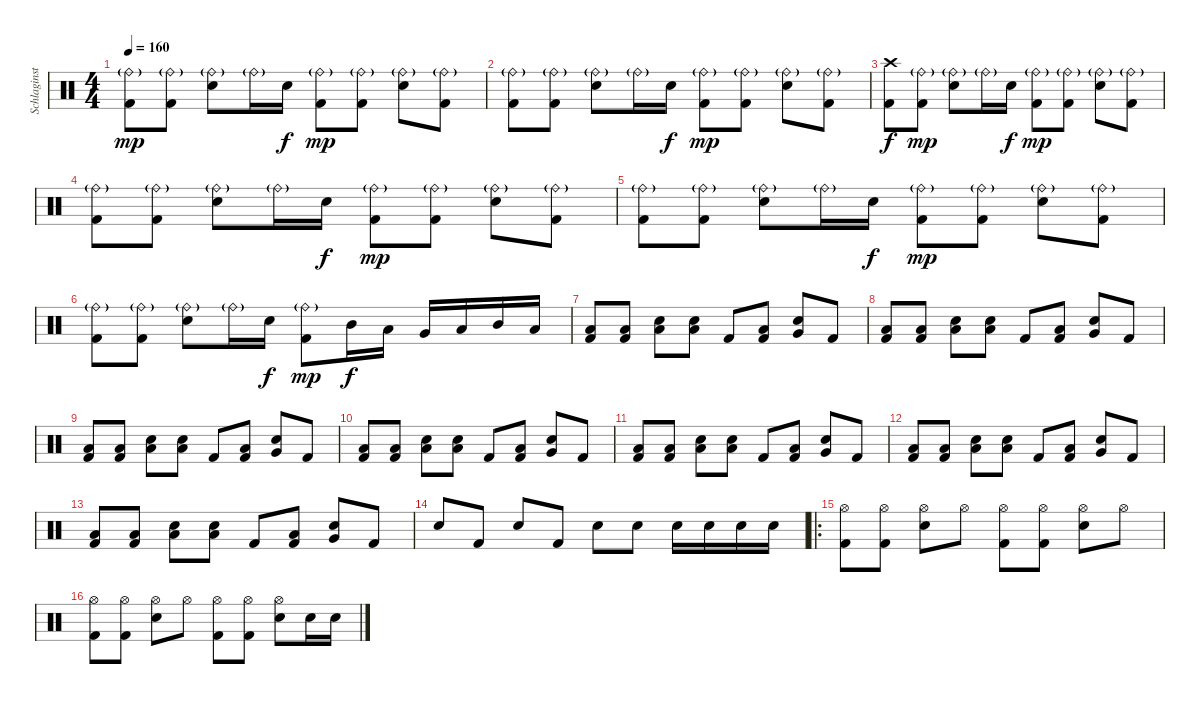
\track ("Schlaginstrumente - Auswahl" "Schlaginst") {instrument percussion}
\staff {score}
\articulation defaults
\ts (4 4)
\tempo 160
\clef neutral
\ks c
("Ride (bell)"{g} "Kick (hit) 2").8{dy mp} ("Ride (bell)"{g} "Kick (hit) 2").8 ("Ride (bell)"{g} "Electric Snare (hit)").8 "Ride (bell)"{g}.16 "Electric Snare (hit)".16{dy f} ("Ride (bell)"{g} "Kick (hit) 2").8{dy mp} ("Ride (bell)"{g} "Kick (hit) 2").8 ("Ride (bell)"{g} "Electric Snare (hit)").8 ("Ride (bell)"{g} "Kick (hit) 2").8 |
("Ride (bell)"{g} "Kick (hit) 2").8 ("Ride (bell)"{g} "Kick (hit) 2").8 ("Ride (bell)"{g} "Electric Snare (hit)").8 "Ride (bell)"{g}.16 "Electric Snare (hit)".16{dy f} ("Ride (bell)"{g} "Kick (hit) 2").8{dy mp} ("Ride (bell)"{g} "Kick (hit) 2").8 ("Ride (bell)"{g} "Electric Snare (hit)").8 ("Ride (bell)"{g} "Kick (hit) 2").8 |
("Crash high (hit)" "Kick (hit) 2").8{dy f} ("Ride (bell)"{g} "Kick (hit) 2").8{dy mp} ("Ride (bell)"{g} "Electric Snare (hit)").8 "Ride (bell)"{g}.16 "Electric Snare (hit)".16{dy f} ("Ride (bell)"{g} "Kick (hit) 2").8{dy mp} ("Ride (bell)"{g} "Kick (hit) 2").8 ("Ride (bell)"{g} "Electric Snare (hit)").8 ("Ride (bell)"{g} "Kick (hit) 2").8 |
("Ride (bell)"{g} "Kick (hit) 2").8 ("Ride (bell)"{g} "Kick (hit) 2").8 ("Ride (bell)"{g} "Electric Snare (hit)").8 "Ride (bell)"{g}.16 "Electric Snare (hit)".16{dy f} ("Ride (bell)"{g} "Kick (hit) 2").8{dy mp} ("Ride (bell)"{g} "Kick (hit) 2").8 ("Ride (bell)"{g} "Electric Snare (hit)").8 ("Ride (bell)"{g} "Kick (hit) 2").8 |
("Ride (bell)"{g} "Kick (hit) 2").8 ("Ride (bell)"{g} "Kick (hit) 2").8 ("Ride (bell)"{g} "Electric Snare (hit)").8 "Ride (bell)"{g}.16 "Electric Snare (hit)".16{dy f} ("Ride (bell)"{g} "Kick (hit) 2").8{dy mp} ("Ride (bell)"{g} "Kick (hit) 2").8 ("Ride (bell)"{g} "Electric Snare (hit)").8 ("Ride (bell)"{g} "Kick (hit) 2").8 |
("Ride (bell)"{g} "Kick (hit) 2").8 ("Ride (bell)"{g} "Kick (hit) 2").8 ("Ride (bell)"{g} "Electric Snare (hit)").8 "Ride (bell)"{g}.16 "Electric Snare (hit)".16{dy f} ("Ride (bell)"{g} "Kick (hit) 2").8{dy mp} "Mid Tom (hit)".16{dy f} "Low Tom (hit)".16 "Very Low Tom (hit)".16 "Low Tom (hit)".16 "Mid Tom (hit)".16 "Low Floor Tom (hit)".16 |
("Low Floor Tom (hit)" "Kick (hit) 2").8 ("Low Floor Tom (hit)" "Kick (hit) 2").8 ("Low Tom (hit)" "Electric Snare (hit)").8 ("Low Tom (hit)" "Electric Snare (hit)").8 "Kick (hit) 2".8 ("Low Floor Tom (hit)" "Kick (hit) 2").8 ("Very Low Tom (hit)" "Electric Snare (hit)").8 "Kick (hit) 2".8 |
("Low Floor Tom (hit)" "Kick (hit) 2").8 ("Low Floor Tom (hit)" "Kick (hit) 2").8 ("Low Tom (hit)" "Electric Snare (hit)").8 ("Low Tom (hit)" "Electric Snare (hit)").8 "Kick (hit) 2".8 ("Low Floor Tom (hit)" "Kick (hit) 2").8 ("Very Low Tom (hit)" "Electric Snare (hit)").8 "Kick (hit) 2".8 |
("Low Floor Tom (hit)" "Kick (hit) 2").8 ("Low Floor Tom (hit)" "Kick (hit) 2").8 ("Low Tom (hit)" "Electric Snare (hit)").8 ("Low Tom (hit)" "Electric Snare (hit)").8 "Kick (hit) 2".8 ("Low Floor Tom (hit)" "Kick (hit) 2").8 ("Very Low Tom (hit)" "Electric Snare (hit)").8 "Kick (hit) 2".8 |
("Low Floor Tom (hit)" "Kick (hit) 2").8 ("Low Floor Tom (hit)" "Kick (hit) 2").8 ("Low Tom (hit)" "Electric Snare (hit)").8 ("Low Tom (hit)" "Electric Snare (hit)").8 "Kick (hit) 2".8 ("Low Floor Tom (hit)" "Kick (hit) 2").8 ("Very Low Tom (hit)" "Electric Snare (hit)").8 "Kick (hit) 2".8 |
("Low Floor Tom (hit)" "Kick (hit) 2").8 ("Low Floor Tom (hit)" "Kick (hit) 2").8 ("Low Tom (hit)" "Electric Snare (hit)").8 ("Low Tom (hit)" "Electric Snare (hit)").8 "Kick (hit) 2".8 ("Low Floor Tom (hit)" "Kick (hit) 2").8 ("Very Low Tom (hit)" "Electric Snare (hit)").8 "Kick (hit) 2".8 |
("Low Floor Tom (hit)" "Kick (hit) 2").8 ("Low Floor Tom (hit)" "Kick (hit) 2").8 ("Low Tom (hit)" "Electric Snare (hit)").8 ("Low Tom (hit)" "Electric Snare (hit)").8 "Kick (hit) 2".8 ("Low Floor Tom (hit)" "Kick (hit) 2").8 ("Very Low Tom (hit)" "Electric Snare (hit)").8 "Kick (hit) 2".8 |
("Low Floor Tom (hit)" "Kick (hit) 2").8 ("Low Floor Tom (hit)" "Kick (hit) 2").8 ("Low Tom (hit)" "Electric Snare (hit)").8 ("Low Tom (hit)" "Electric Snare (hit)").8 "Kick (hit) 2".8 ("Low Floor Tom (hit)" "Kick (hit) 2").8 ("Very Low Tom (hit)" "Electric Snare (hit)").8 "Kick (hit) 2".8 |
"Electric Snare (hit)".8 "Kick (hit) 2".8 "Electric Snare (hit)".8 "Kick (hit) 2".8 "Electric Snare (hit)".8 "Electric Snare (hit)".8 "Electric Snare (hit)".16 "Electric Snare (hit)".16 "Electric Snare (hit)".16 "Electric Snare (hit)".16 |
\ro
("Hi-Hat (open)" "Kick (hit) 2").8 ("Hi-Hat (open)" "Kick (hit) 2").8 ("Hi-Hat (open)" "Electric Snare (hit)").8 "Hi-Hat (open)".8 ("Hi-Hat (open)" "Kick (hit) 2").8 ("Hi-Hat (open)" "Kick (hit) 2").8 ("Hi-Hat (open)" "Electric Snare (hit)").8 "Hi-Hat (open)".8 |
("Hi-Hat (open)" "Kick (hit) 2").8 ("Hi-Hat (open)" "Kick (hit) 2").8 ("Hi-Hat (open)" "Electric Snare (hit)").8 "Hi-Hat (open)".8 ("Hi-Hat (open)" "Kick (hit) 2").8 ("Hi-Hat (open)" "Kick (hit) 2").8 ("Hi-Hat (open)" "Electric Snare (hit)").8 "Electric Snare (hit)".16 "Electric Snare (hit)".16
